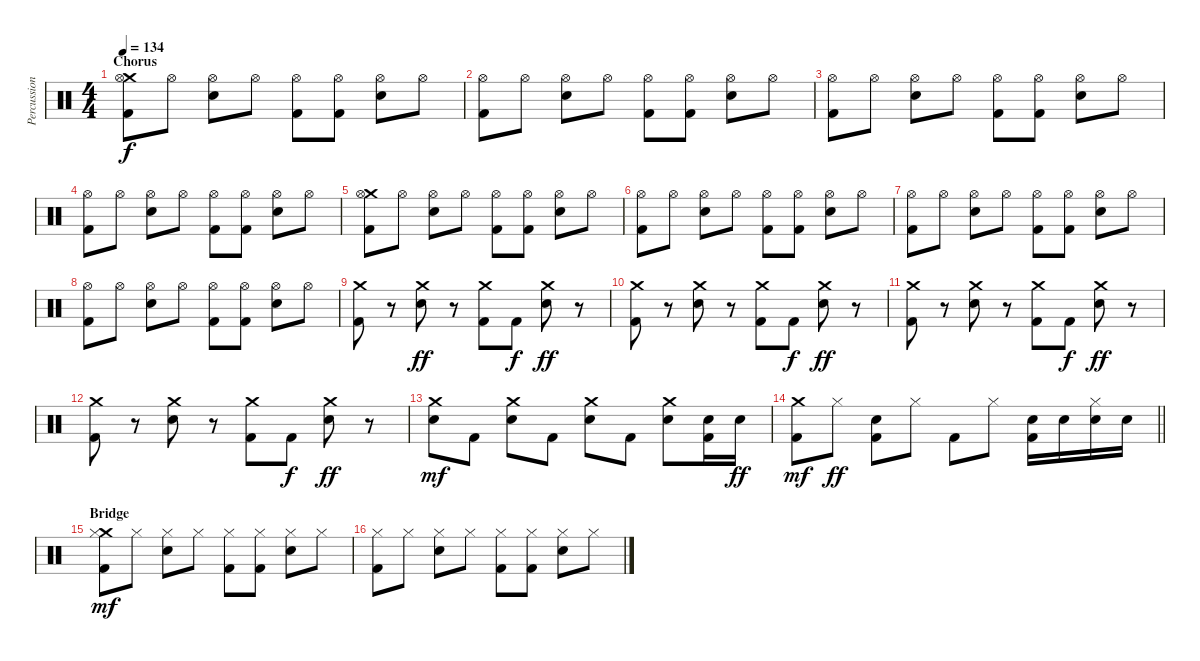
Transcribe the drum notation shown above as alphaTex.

\track ("Percussion" "Percussion") {instrument percussion}
\staff {score}
\articulation defaults
\ts (4 4)
\section ("" "Chorus")
\tempo 134
\clef neutral
\ks c
("Crash medium (hit)" "Hi-Hat (open)" "Kick (hit) 2").8{dy f} "Hi-Hat (open)".8 ("Hi-Hat (open)" "Snare (hit) 2").8 "Hi-Hat (open)".8 ("Hi-Hat (open)" "Kick (hit) 2").8 ("Hi-Hat (open)" "Kick (hit) 2").8 ("Hi-Hat (open)" "Snare (hit) 2").8 "Hi-Hat (open)".8 |
("Hi-Hat (open)" "Kick (hit) 2").8 "Hi-Hat (open)".8 ("Hi-Hat (open)" "Snare (hit) 2").8 "Hi-Hat (open)".8 ("Hi-Hat (open)" "Kick (hit) 2").8 ("Hi-Hat (open)" "Kick (hit) 2").8 ("Hi-Hat (open)" "Snare (hit) 2").8 "Hi-Hat (open)".8 |
("Hi-Hat (open)" "Kick (hit) 2").8 "Hi-Hat (open)".8 ("Hi-Hat (open)" "Snare (hit) 2").8 "Hi-Hat (open)".8 ("Hi-Hat (open)" "Kick (hit) 2").8 ("Hi-Hat (open)" "Kick (hit) 2").8 ("Hi-Hat (open)" "Snare (hit) 2").8 "Hi-Hat (open)".8 |
("Hi-Hat (open)" "Kick (hit) 2").8 "Hi-Hat (open)".8 ("Hi-Hat (open)" "Snare (hit) 2").8 "Hi-Hat (open)".8 ("Hi-Hat (open)" "Kick (hit) 2").8 ("Hi-Hat (open)" "Kick (hit) 2").8 ("Hi-Hat (open)" "Snare (hit) 2").8 "Hi-Hat (open)".8 |
("Crash medium (hit)" "Hi-Hat (open)" "Kick (hit) 2").8 "Hi-Hat (open)".8 ("Hi-Hat (open)" "Snare (hit) 2").8 "Hi-Hat (open)".8 ("Hi-Hat (open)" "Kick (hit) 2").8 ("Hi-Hat (open)" "Kick (hit) 2").8 ("Hi-Hat (open)" "Snare (hit) 2").8 "Hi-Hat (open)".8 |
("Hi-Hat (open)" "Kick (hit) 2").8 "Hi-Hat (open)".8 ("Hi-Hat (open)" "Snare (hit) 2").8 "Hi-Hat (open)".8 ("Hi-Hat (open)" "Kick (hit) 2").8 ("Hi-Hat (open)" "Kick (hit) 2").8 ("Hi-Hat (open)" "Snare (hit) 2").8 "Hi-Hat (open)".8 |
("Hi-Hat (open)" "Kick (hit) 2").8 "Hi-Hat (open)".8 ("Hi-Hat (open)" "Snare (hit) 2").8 "Hi-Hat (open)".8 ("Hi-Hat (open)" "Kick (hit) 2").8 ("Hi-Hat (open)" "Kick (hit) 2").8 ("Hi-Hat (open)" "Snare (hit) 2").8 "Hi-Hat (open)".8 |
("Hi-Hat (open)" "Kick (hit) 2").8 "Hi-Hat (open)".8 ("Hi-Hat (open)" "Snare (hit) 2").8 "Hi-Hat (open)".8 ("Hi-Hat (open)" "Kick (hit) 2").8 ("Hi-Hat (open)" "Kick (hit) 2").8 ("Hi-Hat (open)" "Snare (hit) 2").8 "Hi-Hat (open)".8 |
("Crash medium (hit)" "Kick (hit) 2").8 r.8 ("Crash medium (hit)" "Snare (hit) 2").8{dy ff} r.8 ("Crash medium (hit)" "Kick (hit) 2").8 "Kick (hit) 2".8{dy f} ("Crash medium (hit)" "Snare (hit) 2").8{dy ff} r.8 |
("Crash medium (hit)" "Kick (hit) 2").8 r.8 ("Crash medium (hit)" "Snare (hit) 2").8 r.8 ("Crash medium (hit)" "Kick (hit) 2").8 "Kick (hit) 2".8{dy f} ("Crash medium (hit)" "Snare (hit) 2").8{dy ff} r.8 |
("Crash medium (hit)" "Kick (hit) 2").8 r.8 ("Crash medium (hit)" "Snare (hit) 2").8 r.8 ("Crash medium (hit)" "Kick (hit) 2").8 "Kick (hit) 2".8{dy f} ("Crash medium (hit)" "Snare (hit) 2").8{dy ff} r.8 |
("Crash medium (hit)" "Kick (hit) 2").8 r.8 ("Crash medium (hit)" "Snare (hit) 2").8 r.8 ("Crash medium (hit)" "Kick (hit) 2").8 "Kick (hit) 2".8{dy f} ("Crash medium (hit)" "Snare (hit) 2").8{dy ff} r.8 |
("Crash medium (hit)" "Snare (hit) 2").8{dy mf} "Kick (hit) 2".8 ("Crash medium (hit)" "Snare (hit) 2").8 "Kick (hit) 2".8 ("Crash medium (hit)" "Snare (hit) 2").8 "Kick (hit) 2".8 ("Crash medium (hit)" "Snare (hit) 2").8 ("Snare (hit) 2" "Kick (hit) 2").16 "Snare (hit) 2".16{dy ff} |
\barLineRight lightlight
("Crash medium (hit)" "Kick (hit) 2").8{dy mf} "Hi-Hat (closed)".8{dy ff} ("Snare (hit) 2" "Kick (hit) 2").8 "Hi-Hat (closed)".8 "Kick (hit) 2".8 "Hi-Hat (closed)".8 ("Snare (hit) 2" "Kick (hit) 2").16 "Snare (hit) 2".16 ("Hi-Hat (closed)" "Snare (hit) 2").16 "Snare (hit) 2".16 |
\section ("" "Bridge")
("Crash medium (hit)" "Hi-Hat (closed)" "Kick (hit) 2").8{dy mf} "Hi-Hat (closed)".8 ("Hi-Hat (closed)" "Snare (hit) 2").8 "Hi-Hat (closed)".8 ("Hi-Hat (closed)" "Kick (hit) 2").8 ("Hi-Hat (closed)" "Kick (hit) 2").8 ("Hi-Hat (closed)" "Snare (hit) 2").8 "Hi-Hat (closed)".8 |
("Hi-Hat (closed)" "Kick (hit) 2").8 "Hi-Hat (closed)".8 ("Hi-Hat (closed)" "Snare (hit) 2").8 "Hi-Hat (closed)".8 ("Hi-Hat (closed)" "Kick (hit) 2").8 ("Hi-Hat (closed)" "Kick (hit) 2").8 ("Hi-Hat (closed)" "Snare (hit) 2").8 "Hi-Hat (closed)".8
